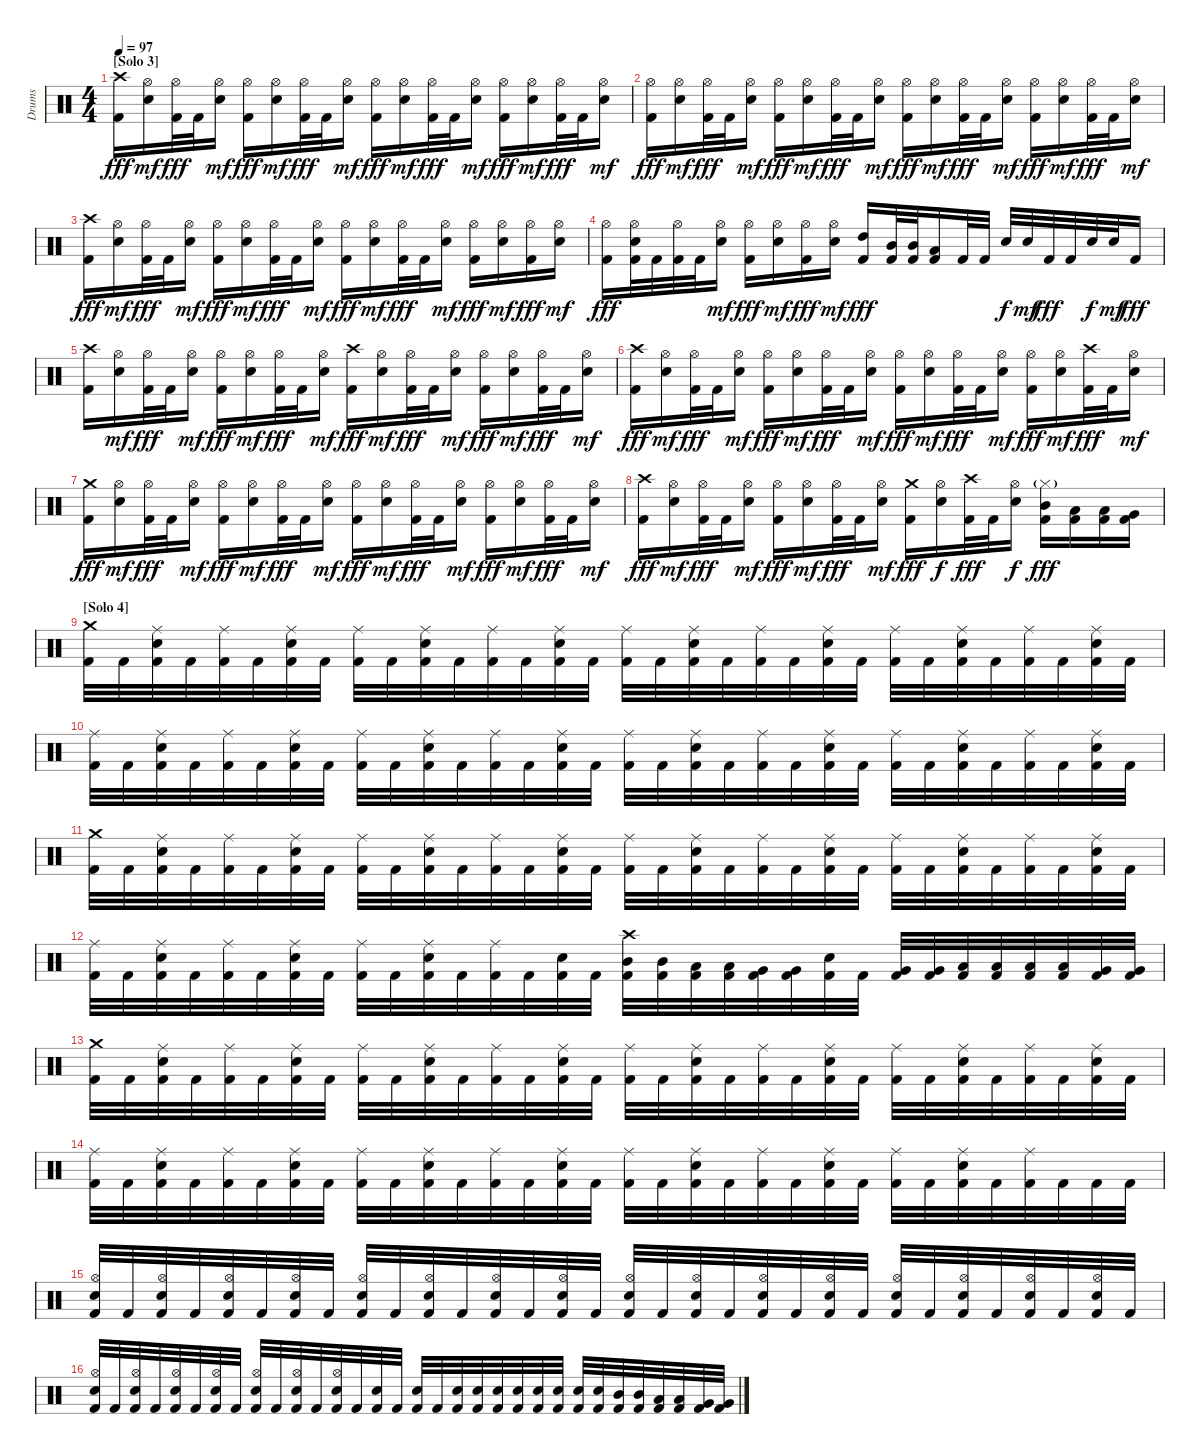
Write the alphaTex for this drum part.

\track ("Drums" "Drums") {instrument percussion}
\staff {score}
\articulation defaults
\ts (4 4)
\section ("" "[Solo 3]")
\tempo 97
\clef neutral
\ks c
("Crash high (hit)" "Kick (hit) 2").16{dy fff} ("Hi-Hat (open)" "Snare (hit) 2").16{dy mf} ("Hi-Hat (open)" "Kick (hit) 2").32{dy fff} "Kick (hit) 2".32 ("Hi-Hat (open)" "Snare (hit) 2").16{dy mf} ("Hi-Hat (open)" "Kick (hit) 2").16{dy fff} ("Hi-Hat (open)" "Snare (hit) 2").16{dy mf} ("Hi-Hat (open)" "Kick (hit) 2").32{dy fff} "Kick (hit) 2".32 ("Hi-Hat (open)" "Snare (hit) 2").16{dy mf} ("Hi-Hat (open)" "Kick (hit) 2").16{dy fff} ("Hi-Hat (open)" "Snare (hit) 2").16{dy mf} ("Hi-Hat (open)" "Kick (hit) 2").32{dy fff} "Kick (hit) 2".32 ("Hi-Hat (open)" "Snare (hit) 2").16{dy mf} ("Hi-Hat (open)" "Kick (hit) 2").16{dy fff} ("Hi-Hat (open)" "Snare (hit) 2").16{dy mf} ("Hi-Hat (open)" "Kick (hit) 2").32{dy fff} "Kick (hit) 2".32 ("Hi-Hat (open)" "Snare (hit) 2").16{dy mf} |
("Hi-Hat (open)" "Kick (hit) 2").16{dy fff} ("Hi-Hat (open)" "Snare (hit) 2").16{dy mf} ("Hi-Hat (open)" "Kick (hit) 2").32{dy fff} "Kick (hit) 2".32 ("Hi-Hat (open)" "Snare (hit) 2").16{dy mf} ("Hi-Hat (open)" "Kick (hit) 2").16{dy fff} ("Hi-Hat (open)" "Snare (hit) 2").16{dy mf} ("Hi-Hat (open)" "Kick (hit) 2").32{dy fff} "Kick (hit) 2".32 ("Hi-Hat (open)" "Snare (hit) 2").16{dy mf} ("Hi-Hat (open)" "Kick (hit) 2").16{dy fff} ("Hi-Hat (open)" "Snare (hit) 2").16{dy mf} ("Hi-Hat (open)" "Kick (hit) 2").32{dy fff} "Kick (hit) 2".32 ("Hi-Hat (open)" "Snare (hit) 2").16{dy mf} ("Hi-Hat (open)" "Kick (hit) 2").16{dy fff} ("Hi-Hat (open)" "Snare (hit) 2").16{dy mf} ("Hi-Hat (open)" "Kick (hit) 2").32{dy fff} "Kick (hit) 2".32 ("Hi-Hat (open)" "Snare (hit) 2").16{dy mf} |
("Crash high (hit)" "Kick (hit) 2").16{dy fff} ("Hi-Hat (open)" "Snare (hit) 2").16{dy mf} ("Hi-Hat (open)" "Kick (hit) 2").32{dy fff} "Kick (hit) 2".32 ("Hi-Hat (open)" "Snare (hit) 2").16{dy mf} ("Hi-Hat (open)" "Kick (hit) 2").16{dy fff} ("Hi-Hat (open)" "Snare (hit) 2").16{dy mf} ("Hi-Hat (open)" "Kick (hit) 2").32{dy fff} "Kick (hit) 2".32 ("Hi-Hat (open)" "Snare (hit) 2").16{dy mf} ("Hi-Hat (open)" "Kick (hit) 2").16{dy fff} ("Hi-Hat (open)" "Snare (hit) 2").16{dy mf} ("Hi-Hat (open)" "Kick (hit) 2").32{dy fff} "Kick (hit) 2".32 ("Hi-Hat (open)" "Snare (hit) 2").16{dy mf} ("Hi-Hat (open)" "Kick (hit) 2").16{dy fff} ("Hi-Hat (open)" "Snare (hit) 2").16{dy mf} ("Hi-Hat (open)" "Kick (hit) 2").16{dy fff} ("Hi-Hat (open)" "Snare (hit) 2").16{dy mf} |
("Hi-Hat (open)" "Kick (hit) 2").16{dy fff} ("Hi-Hat (open)" "Snare (hit) 2" "Kick (hit) 2").32 "Kick (hit) 2".32 ("Hi-Hat (open)" "Kick (hit) 2").32 "Kick (hit) 2".32 ("Hi-Hat (open)" "Snare (hit) 2").16{dy mf} ("Hi-Hat (open)" "Kick (hit) 2").16{dy fff} ("Hi-Hat (open)" "Snare (hit) 2").16{dy mf} ("Hi-Hat (open)" "Kick (hit) 2").16{dy fff} ("Hi-Hat (open)" "Snare (hit) 2").16{dy mf} ("High Tom (hit)" "Kick (hit) 2").16{dy fff} ("Mid Tom (hit)" "Kick (hit) 2").32 ("Mid Tom (hit)" "Kick (hit) 2").32 ("Low Tom (hit)" "Kick (hit) 2").16 "Kick (hit) 2".32 "Kick (hit) 2".32 "Snare (hit) 2".32{dy f} "Snare (hit) 2".32{dy mf} "Kick (hit) 2".32{dy fff} "Kick (hit) 2".32 "Snare (hit) 2".32{dy f} "Snare (hit) 2".32{dy mf} "Kick (hit) 2".16{dy fff} |
("Crash high (hit)" "Kick (hit) 2").16 ("Hi-Hat (open)" "Snare (hit) 2").16{dy mf} ("Hi-Hat (open)" "Kick (hit) 2").32{dy fff} "Kick (hit) 2".32 ("Hi-Hat (open)" "Snare (hit) 2").16{dy mf} ("Hi-Hat (open)" "Kick (hit) 2").16{dy fff} ("Hi-Hat (open)" "Snare (hit) 2").16{dy mf} ("Hi-Hat (open)" "Kick (hit) 2").32{dy fff} "Kick (hit) 2".32 ("Hi-Hat (open)" "Snare (hit) 2").16{dy mf} ("Crash high (hit)" "Kick (hit) 2").16{dy fff} ("Hi-Hat (open)" "Snare (hit) 2").16{dy mf} ("Hi-Hat (open)" "Kick (hit) 2").32{dy fff} "Kick (hit) 2".32 ("Hi-Hat (open)" "Snare (hit) 2").16{dy mf} ("Hi-Hat (open)" "Kick (hit) 2").16{dy fff} ("Hi-Hat (open)" "Snare (hit) 2").16{dy mf} ("Hi-Hat (open)" "Kick (hit) 2").32{dy fff} "Kick (hit) 2".32 ("Hi-Hat (open)" "Snare (hit) 2").16{dy mf} |
("Crash high (hit)" "Kick (hit) 2").16{dy fff} ("Hi-Hat (open)" "Snare (hit) 2").16{dy mf} ("Hi-Hat (open)" "Kick (hit) 2").32{dy fff} "Kick (hit) 2".32 ("Hi-Hat (open)" "Snare (hit) 2").16{dy mf} ("Hi-Hat (open)" "Kick (hit) 2").16{dy fff} ("Hi-Hat (open)" "Snare (hit) 2").16{dy mf} ("Hi-Hat (open)" "Kick (hit) 2").32{dy fff} "Kick (hit) 2".32 ("Hi-Hat (open)" "Snare (hit) 2").16{dy mf} ("Hi-Hat (open)" "Kick (hit) 2").16{dy fff} ("Hi-Hat (open)" "Snare (hit) 2").16{dy mf} ("Hi-Hat (open)" "Kick (hit) 2").32{dy fff} "Kick (hit) 2".32 ("Hi-Hat (open)" "Snare (hit) 2").16{dy mf} ("Hi-Hat (open)" "Kick (hit) 2").16{dy fff} ("Hi-Hat (open)" "Snare (hit) 2").16{dy mf} ("Crash high (hit)" "Kick (hit) 2").32{dy fff} "Kick (hit) 2".32 ("Hi-Hat (open)" "Snare (hit) 2").16{dy mf} |
("Crash medium (hit)" "Kick (hit) 2").16{dy fff} ("Hi-Hat (open)" "Snare (hit) 2").16{dy mf} ("Hi-Hat (open)" "Kick (hit) 2").32{dy fff} "Kick (hit) 2".32 ("Hi-Hat (open)" "Snare (hit) 2").16{dy mf} ("Hi-Hat (open)" "Kick (hit) 2").16{dy fff} ("Hi-Hat (open)" "Snare (hit) 2").16{dy mf} ("Hi-Hat (open)" "Kick (hit) 2").32{dy fff} "Kick (hit) 2".32 ("Hi-Hat (open)" "Snare (hit) 2").16{dy mf} ("Hi-Hat (open)" "Kick (hit) 2").16{dy fff} ("Hi-Hat (open)" "Snare (hit) 2").16{dy mf} ("Hi-Hat (open)" "Kick (hit) 2").32{dy fff} "Kick (hit) 2".32 ("Hi-Hat (open)" "Snare (hit) 2").16{dy mf} ("Hi-Hat (open)" "Kick (hit) 2").16{dy fff} ("Hi-Hat (open)" "Snare (hit) 2").16{dy mf} ("Hi-Hat (open)" "Kick (hit) 2").32{dy fff} "Kick (hit) 2".32 ("Hi-Hat (open)" "Snare (hit) 2").16{dy mf} |
("Crash high (hit)" "Kick (hit) 2").16{dy fff} ("Hi-Hat (open)" "Snare (hit) 2").16{dy mf} ("Hi-Hat (open)" "Kick (hit) 2").32{dy fff} "Kick (hit) 2".32 ("Hi-Hat (open)" "Snare (hit) 2").16{dy mf} ("Hi-Hat (open)" "Kick (hit) 2").16{dy fff} ("Hi-Hat (open)" "Snare (hit) 2").16{dy mf} ("Hi-Hat (open)" "Kick (hit) 2").32{dy fff} "Kick (hit) 2".32 ("Hi-Hat (open)" "Snare (hit) 2").16{dy mf} ("Crash medium (hit)" "Kick (hit) 2").16{dy fff} ("Hi-Hat (open)" "Snare (hit) 2").16{dy f} ("Crash high (hit)" "Kick (hit) 2").32{dy fff} "Kick (hit) 2".32 ("Hi-Hat (open)" "Snare (hit) 2").16{dy f} ("Hi-Hat (closed)"{g} "Mid Tom (hit)" "Kick (hit) 2").16{dy fff} ("Low Tom (hit)" "Kick (hit) 2").16 ("Low Tom (hit)" "Kick (hit) 2").16 ("Very Low Tom (hit)" "Kick (hit) 2").16 |
\section ("" "[Solo 4]")
("Crash medium (hit)" "Kick (hit) 2").32 "Kick (hit) 2".32 ("Ride (middle)" "Snare (hit) 2" "Kick (hit) 2").32 "Kick (hit) 2".32 ("Ride (middle)" "Kick (hit) 2").32 "Kick (hit) 2".32 ("Ride (middle)" "Snare (hit) 2" "Kick (hit) 2").32 "Kick (hit) 2".32 ("Ride (middle)" "Kick (hit) 2").32 "Kick (hit) 2".32 ("Ride (middle)" "Snare (hit) 2" "Kick (hit) 2").32 "Kick (hit) 2".32 ("Ride (middle)" "Kick (hit) 2").32 "Kick (hit) 2".32 ("Ride (middle)" "Snare (hit) 2" "Kick (hit) 2").32 "Kick (hit) 2".32 ("Ride (middle)" "Kick (hit) 2").32 "Kick (hit) 2".32 ("Ride (middle)" "Snare (hit) 2" "Kick (hit) 2").32 "Kick (hit) 2".32 ("Ride (middle)" "Kick (hit) 2").32 "Kick (hit) 2".32 ("Ride (middle)" "Snare (hit) 2" "Kick (hit) 2").32 "Kick (hit) 2".32 ("Ride (middle)" "Kick (hit) 2").32 "Kick (hit) 2".32 ("Ride (middle)" "Snare (hit) 2" "Kick (hit) 2").32 "Kick (hit) 2".32 ("Ride (middle)" "Kick (hit) 2").32 "Kick (hit) 2".32 ("Ride (middle)" "Snare (hit) 2" "Kick (hit) 2").32 "Kick (hit) 2".32 |
("Ride (middle)" "Kick (hit) 2").32 "Kick (hit) 2".32 ("Ride (middle)" "Snare (hit) 2" "Kick (hit) 2").32 "Kick (hit) 2".32 ("Ride (middle)" "Kick (hit) 2").32 "Kick (hit) 2".32 ("Ride (middle)" "Snare (hit) 2" "Kick (hit) 2").32 "Kick (hit) 2".32 ("Ride (middle)" "Kick (hit) 2").32 "Kick (hit) 2".32 ("Ride (middle)" "Snare (hit) 2" "Kick (hit) 2").32 "Kick (hit) 2".32 ("Ride (middle)" "Kick (hit) 2").32 "Kick (hit) 2".32 ("Ride (middle)" "Snare (hit) 2" "Kick (hit) 2").32 "Kick (hit) 2".32 ("Ride (middle)" "Kick (hit) 2").32 "Kick (hit) 2".32 ("Ride (middle)" "Snare (hit) 2" "Kick (hit) 2").32 "Kick (hit) 2".32 ("Ride (middle)" "Kick (hit) 2").32 "Kick (hit) 2".32 ("Ride (middle)" "Snare (hit) 2" "Kick (hit) 2").32 "Kick (hit) 2".32 ("Ride (middle)" "Kick (hit) 2").32 "Kick (hit) 2".32 ("Ride (middle)" "Snare (hit) 2" "Kick (hit) 2").32 "Kick (hit) 2".32 ("Ride (middle)" "Kick (hit) 2").32 "Kick (hit) 2".32 ("Ride (middle)" "Snare (hit) 2" "Kick (hit) 2").32 "Kick (hit) 2".32 |
("Crash medium (hit)" "Kick (hit) 2").32 "Kick (hit) 2".32 ("Ride (middle)" "Snare (hit) 2" "Kick (hit) 2").32 "Kick (hit) 2".32 ("Ride (middle)" "Kick (hit) 2").32 "Kick (hit) 2".32 ("Ride (middle)" "Snare (hit) 2" "Kick (hit) 2").32 "Kick (hit) 2".32 ("Ride (middle)" "Kick (hit) 2").32 "Kick (hit) 2".32 ("Ride (middle)" "Snare (hit) 2" "Kick (hit) 2").32 "Kick (hit) 2".32 ("Ride (middle)" "Kick (hit) 2").32 "Kick (hit) 2".32 ("Ride (middle)" "Snare (hit) 2" "Kick (hit) 2").32 "Kick (hit) 2".32 ("Ride (middle)" "Kick (hit) 2").32 "Kick (hit) 2".32 ("Ride (middle)" "Snare (hit) 2" "Kick (hit) 2").32 "Kick (hit) 2".32 ("Ride (middle)" "Kick (hit) 2").32 "Kick (hit) 2".32 ("Ride (middle)" "Snare (hit) 2" "Kick (hit) 2").32 "Kick (hit) 2".32 ("Ride (middle)" "Kick (hit) 2").32 "Kick (hit) 2".32 ("Ride (middle)" "Snare (hit) 2" "Kick (hit) 2").32 "Kick (hit) 2".32 ("Ride (middle)" "Kick (hit) 2").32 "Kick (hit) 2".32 ("Ride (middle)" "Snare (hit) 2" "Kick (hit) 2").32 "Kick (hit) 2".32 |
("Ride (middle)" "Kick (hit) 2").32 "Kick (hit) 2".32 ("Ride (middle)" "Snare (hit) 2" "Kick (hit) 2").32 "Kick (hit) 2".32 ("Ride (middle)" "Kick (hit) 2").32 "Kick (hit) 2".32 ("Ride (middle)" "Snare (hit) 2" "Kick (hit) 2").32 "Kick (hit) 2".32 ("Ride (middle)" "Kick (hit) 2").32 "Kick (hit) 2".32 ("Ride (middle)" "Snare (hit) 2" "Kick (hit) 2").32 "Kick (hit) 2".32 ("Ride (middle)" "Kick (hit) 2").32 "Kick (hit) 2".32 ("Snare (hit) 2" "Kick (hit) 2").32 "Kick (hit) 2".32 ("Crash high (hit)" "Mid Tom (hit)" "Kick (hit) 2").32 ("Mid Tom (hit)" "Kick (hit) 2").32 ("Low Tom (hit)" "Kick (hit) 2").32 ("Low Tom (hit)" "Kick (hit) 2").32 ("Very Low Tom (hit)" "Kick (hit) 2").32 ("Very Low Tom (hit)" "Kick (hit) 2").32 ("Snare (hit) 2" "Kick (hit) 2").32 "Kick (hit) 2".32 ("Very Low Tom (hit)" "Kick (hit) 2").32 ("Very Low Tom (hit)" "Kick (hit) 2").32 ("Low Floor Tom (hit)" "Kick (hit) 2").32 ("Low Floor Tom (hit)" "Kick (hit) 2").32 ("Low Tom (hit)" "Kick (hit) 2").32 ("Low Tom (hit)" "Kick (hit) 2").32 ("Very Low Tom (hit)" "Kick (hit) 2").32 ("Very Low Tom (hit)" "Kick (hit) 2").32 |
("Crash medium (hit)" "Kick (hit) 2").32 "Kick (hit) 2".32 ("Ride (middle)" "Snare (hit) 2" "Kick (hit) 2").32 "Kick (hit) 2".32 ("Ride (middle)" "Kick (hit) 2").32 "Kick (hit) 2".32 ("Ride (middle)" "Snare (hit) 2" "Kick (hit) 2").32 "Kick (hit) 2".32 ("Ride (middle)" "Kick (hit) 2").32 "Kick (hit) 2".32 ("Ride (middle)" "Snare (hit) 2" "Kick (hit) 2").32 "Kick (hit) 2".32 ("Ride (middle)" "Kick (hit) 2").32 "Kick (hit) 2".32 ("Ride (middle)" "Snare (hit) 2" "Kick (hit) 2").32 "Kick (hit) 2".32 ("Ride (middle)" "Kick (hit) 2").32 "Kick (hit) 2".32 ("Ride (middle)" "Snare (hit) 2" "Kick (hit) 2").32 "Kick (hit) 2".32 ("Ride (middle)" "Kick (hit) 2").32 "Kick (hit) 2".32 ("Ride (middle)" "Snare (hit) 2" "Kick (hit) 2").32 "Kick (hit) 2".32 ("Ride (middle)" "Kick (hit) 2").32 "Kick (hit) 2".32 ("Ride (middle)" "Snare (hit) 2" "Kick (hit) 2").32 "Kick (hit) 2".32 ("Ride (middle)" "Kick (hit) 2").32 "Kick (hit) 2".32 ("Ride (middle)" "Snare (hit) 2" "Kick (hit) 2").32 "Kick (hit) 2".32 |
("Ride (middle)" "Kick (hit) 2").32 "Kick (hit) 2".32 ("Ride (middle)" "Snare (hit) 2" "Kick (hit) 2").32 "Kick (hit) 2".32 ("Ride (middle)" "Kick (hit) 2").32 "Kick (hit) 2".32 ("Ride (middle)" "Snare (hit) 2" "Kick (hit) 2").32 "Kick (hit) 2".32 ("Ride (middle)" "Kick (hit) 2").32 "Kick (hit) 2".32 ("Ride (middle)" "Snare (hit) 2" "Kick (hit) 2").32 "Kick (hit) 2".32 ("Ride (middle)" "Kick (hit) 2").32 "Kick (hit) 2".32 ("Ride (middle)" "Snare (hit) 2" "Kick (hit) 2").32 "Kick (hit) 2".32 ("Ride (middle)" "Kick (hit) 2").32 "Kick (hit) 2".32 ("Ride (middle)" "Snare (hit) 2" "Kick (hit) 2").32 "Kick (hit) 2".32 ("Ride (middle)" "Kick (hit) 2").32 "Kick (hit) 2".32 ("Ride (middle)" "Snare (hit) 2" "Kick (hit) 2").32 "Kick (hit) 2".32 ("Ride (middle)" "Kick (hit) 2").32 "Kick (hit) 2".32 ("Ride (middle)" "Snare (hit) 2" "Kick (hit) 2").32 "Kick (hit) 2".32 ("Ride (middle)" "Kick (hit) 2").32 "Kick (hit) 2".32 "Kick (hit) 2".32 "Kick (hit) 2".32 |
("Hi-Hat (open)" "Snare (hit) 2" "Kick (hit) 2").32 "Kick (hit) 2".32 ("Hi-Hat (open)" "Snare (hit) 2" "Kick (hit) 2").32 "Kick (hit) 2".32 ("Hi-Hat (open)" "Snare (hit) 2" "Kick (hit) 2").32 "Kick (hit) 2".32 ("Hi-Hat (open)" "Snare (hit) 2" "Kick (hit) 2").32 "Kick (hit) 2".32 ("Hi-Hat (open)" "Snare (hit) 2" "Kick (hit) 2").32 "Kick (hit) 2".32 ("Hi-Hat (open)" "Snare (hit) 2" "Kick (hit) 2").32 "Kick (hit) 2".32 ("Hi-Hat (open)" "Snare (hit) 2" "Kick (hit) 2").32 "Kick (hit) 2".32 ("Hi-Hat (open)" "Snare (hit) 2" "Kick (hit) 2").32 "Kick (hit) 2".32 ("Hi-Hat (open)" "Snare (hit) 2" "Kick (hit) 2").32 "Kick (hit) 2".32 ("Hi-Hat (open)" "Snare (hit) 2" "Kick (hit) 2").32 "Kick (hit) 2".32 ("Hi-Hat (open)" "Snare (hit) 2" "Kick (hit) 2").32 "Kick (hit) 2".32 ("Hi-Hat (open)" "Snare (hit) 2" "Kick (hit) 2").32 "Kick (hit) 2".32 ("Hi-Hat (open)" "Snare (hit) 2" "Kick (hit) 2").32 "Kick (hit) 2".32 ("Hi-Hat (open)" "Snare (hit) 2" "Kick (hit) 2").32 "Kick (hit) 2".32 ("Hi-Hat (open)" "Snare (hit) 2" "Kick (hit) 2").32 "Kick (hit) 2".32 ("Hi-Hat (open)" "Snare (hit) 2" "Kick (hit) 2").32 "Kick (hit) 2".32 |
("Hi-Hat (open)" "Snare (hit) 2" "Kick (hit) 2").32 "Kick (hit) 2".32 ("Hi-Hat (open)" "Snare (hit) 2" "Kick (hit) 2").32 "Kick (hit) 2".32 ("Hi-Hat (open)" "Snare (hit) 2" "Kick (hit) 2").32 "Kick (hit) 2".32 ("Hi-Hat (open)" "Snare (hit) 2" "Kick (hit) 2").32 "Kick (hit) 2".32 ("Hi-Hat (open)" "Snare (hit) 2" "Kick (hit) 2").32 "Kick (hit) 2".32 ("Hi-Hat (open)" "Snare (hit) 2" "Kick (hit) 2").32 "Kick (hit) 2".32 ("Hi-Hat (open)" "Snare (hit) 2" "Kick (hit) 2").32 "Kick (hit) 2".32 ("Snare (hit) 2" "Kick (hit) 2").32 "Kick (hit) 2".32 ("Snare (hit) 2" "Kick (hit) 2").32 "Kick (hit) 2".32 ("Snare (hit) 2" "Kick (hit) 2").32 ("Snare (hit) 2" "Kick (hit) 2").32 ("Snare (hit) 2" "Kick (hit) 2").32 ("Snare (hit) 2" "Kick (hit) 2").32 ("Snare (hit) 2" "Kick (hit) 2").32 ("Snare (hit) 2" "Kick (hit) 2").32 ("Snare (hit) 2" "Kick (hit) 2").32 ("Snare (hit) 2" "Kick (hit) 2").32 ("Mid Tom (hit)" "Kick (hit) 2").32 ("Mid Tom (hit)" "Kick (hit) 2").32 ("Low Tom (hit)" "Kick (hit) 2").32 ("Low Tom (hit)" "Kick (hit) 2").32 ("Very Low Tom (hit)" "Kick (hit) 2").32 ("Very Low Tom (hit)" "Kick (hit) 2").32
